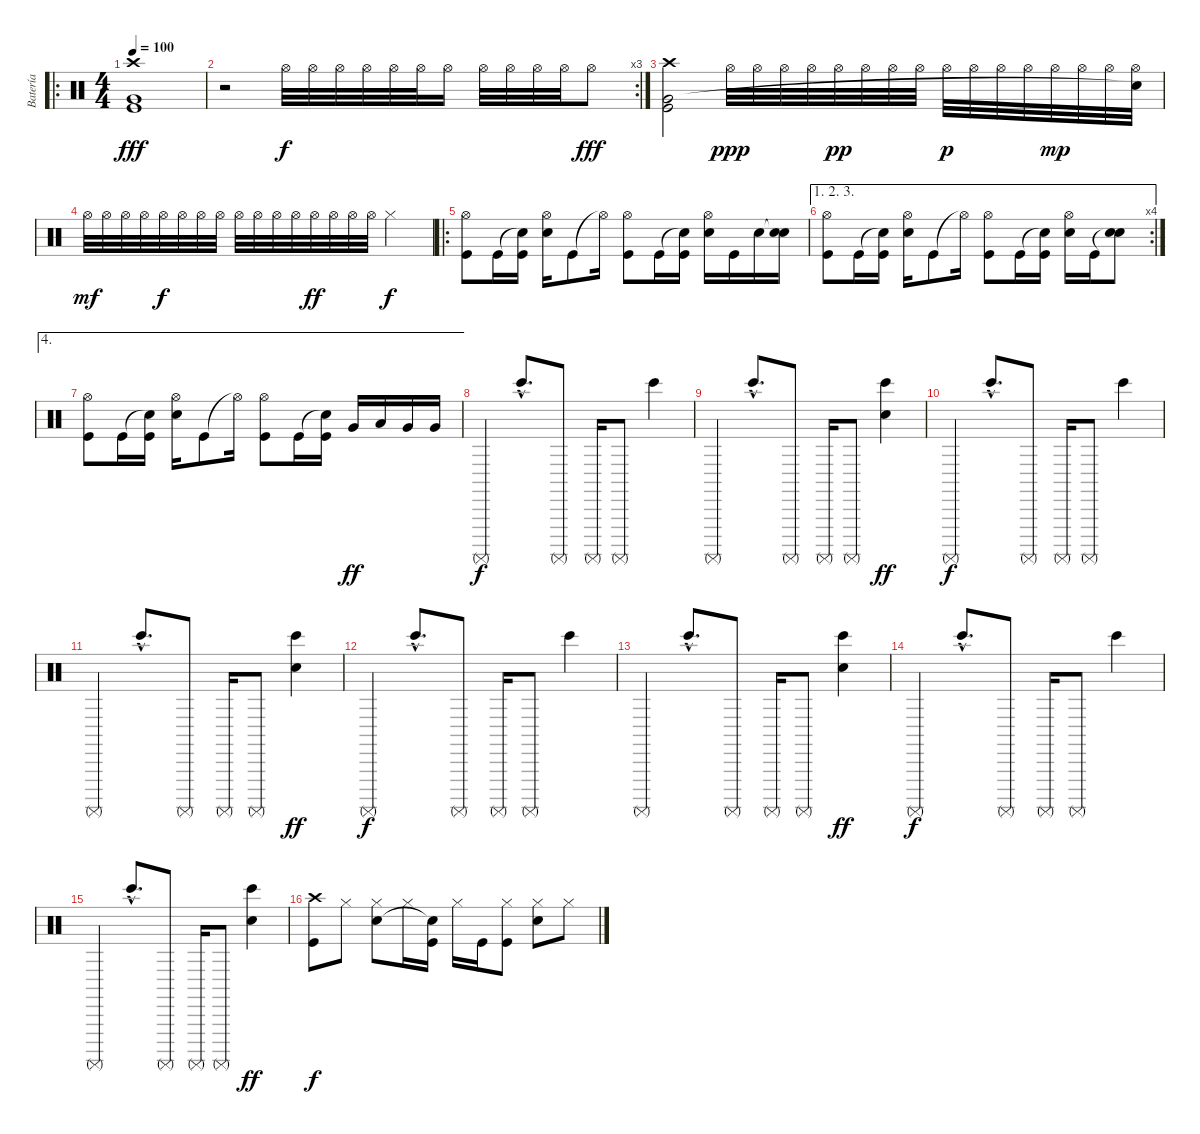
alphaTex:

\track ("Batería" "Batería") {instrument percussion}
\staff {score}
\articulation defaults
\ro
\ts (4 4)
\tempo 100
\clef neutral
\ks c
("Kick (hit)" "Very Low Tom (hit)" "Crash high (hit)").1{dy fff} |
\rc 3
r.2 "Hi-Hat (open)".32{dy f} "Hi-Hat (open)".32 "Hi-Hat (open)".32 "Hi-Hat (open)".32 "Hi-Hat (open)".32 "Hi-Hat (open)".32 "Hi-Hat (open)".16 "Hi-Hat (open)".32 "Hi-Hat (open)".32 "Hi-Hat (open)".32 "Hi-Hat (open)".32 "Hi-Hat (open)".8{dy fff} |
("Kick (hit)" "Very Low Tom (hit)" "Crash high (hit)").2 "Hi-Hat (open)".32{dy ppp} "Hi-Hat (open)".32 "Hi-Hat (open)".32 "Hi-Hat (open)".32 "Hi-Hat (open)".32{dy pp} "Hi-Hat (open)".32 "Hi-Hat (open)".32 "Hi-Hat (open)".32 "Hi-Hat (open)".32{dy p} "Hi-Hat (open)".32 "Hi-Hat (open)".32 "Hi-Hat (open)".32 "Hi-Hat (open)".32{dy mp} "Hi-Hat (open)".32 "Hi-Hat (open)".32 ("Hi-Hat (open)" "Snare (hit)"{t}).32 |
"Hi-Hat (open)".32{dy mf} "Hi-Hat (open)".32 "Hi-Hat (open)".32 "Hi-Hat (open)".32 "Hi-Hat (open)".32{dy f} "Hi-Hat (open)".32 "Hi-Hat (open)".32 "Hi-Hat (open)".32 "Hi-Hat (open)".32 "Hi-Hat (open)".32 "Hi-Hat (open)".32 "Hi-Hat (open)".32 "Hi-Hat (open)".32{dy ff} "Hi-Hat (open)".32 "Hi-Hat (open)".32 "Hi-Hat (open)".32 "Hi-Hat (closed)".2{dy f} |
\ro
("Hi-Hat (open)" "Kick (hit)").8 "Kick (hit)".16 ("Snare (hit)"{t} "Kick (hit)").16 ("Hi-Hat (open)" "Snare (hit) 2").16 "Kick (hit)".8 "Hi-Hat (open)"{t}.16 ("Hi-Hat (open)" "Kick (hit)").8 "Kick (hit)".16 ("Snare (hit)"{t} "Kick (hit)").16 ("Hi-Hat (open)" "Snare (hit) 2").16 "Kick (hit)".16 "Snare (hit) 2".16 ("Snare (hit)"{t} "Snare (hit) 2").16 |
\ae (1 2 3)
\rc 4
("Hi-Hat (open)" "Kick (hit)").8 "Kick (hit)".16 ("Snare (hit)"{t} "Kick (hit)").16 ("Hi-Hat (open)" "Snare (hit) 2").16 "Kick (hit)".8 "Hi-Hat (open)"{t}.16 ("Hi-Hat (open)" "Kick (hit)").8 "Kick (hit)".16 ("Snare (hit)"{t} "Kick (hit)").16 ("Hi-Hat (open)" "Snare (hit) 2").16 "Kick (hit)".16 ("Snare (hit)"{t} "Snare (hit) 2").8 |
\ae 4
("Hi-Hat (open)" "Kick (hit)").8 "Kick (hit)".16 ("Snare (hit)"{t} "Kick (hit)").16 ("Hi-Hat (open)" "Snare (hit) 2").16 "Kick (hit)".8 "Hi-Hat (open)"{t}.16 ("Hi-Hat (open)" "Kick (hit)").8 "Kick (hit)".16 ("Snare (hit)"{t} "Kick (hit)").16 "Very Low Tom (hit)".16{dy ff} "Low Tom (hit)".16 "Very Low Tom (hit)".16 "Very Low Tom (hit)".16 |
"Surdo (mute)".4{dy f} "Bongo High (hit)"{hac}.8{d} "Surdo (mute)".8 "Surdo (mute)".16 "Surdo (mute)".8 "Bongo High (hit)".4 |
"Surdo (mute)".4 "Bongo High (hit)"{hac}.8{d} "Surdo (mute)".8 "Surdo (mute)".16 "Surdo (mute)".8 ("Metronome (bell)" "Bongo High (hit)").4{dy ff} |
"Surdo (mute)".4{dy f} "Bongo High (hit)"{hac}.8{d} "Surdo (mute)".8 "Surdo (mute)".16 "Surdo (mute)".8 "Bongo High (hit)".4 |
"Surdo (mute)".4 "Bongo High (hit)"{hac}.8{d} "Surdo (mute)".8 "Surdo (mute)".16 "Surdo (mute)".8 ("Metronome (bell)" "Bongo High (hit)").4{dy ff} |
"Surdo (mute)".4{dy f} "Bongo High (hit)"{hac}.8{d} "Surdo (mute)".8 "Surdo (mute)".16 "Surdo (mute)".8 "Bongo High (hit)".4 |
"Surdo (mute)".4 "Bongo High (hit)"{hac}.8{d} "Surdo (mute)".8 "Surdo (mute)".16 "Surdo (mute)".8 ("Metronome (bell)" "Bongo High (hit)").4{dy ff} |
"Surdo (mute)".4{dy f} "Bongo High (hit)"{hac}.8{d} "Surdo (mute)".8 "Surdo (mute)".16 "Surdo (mute)".8 "Bongo High (hit)".4 |
"Surdo (mute)".4 "Bongo High (hit)"{hac}.8{d} "Surdo (mute)".8 "Surdo (mute)".16 "Surdo (mute)".8 ("Metronome (bell)" "Bongo High (hit)").4{dy ff} |
("Kick (hit)" "Crash high (hit)").8{dy f} "Hi-Hat (closed)".8 ("Hi-Hat (closed)" "Snare (hit) 2").8 "Hi-Hat (closed)".16 ("Kick (hit)" "Snare (hit)"{t}).16 "Hi-Hat (closed)".16 "Kick (hit)".16 ("Hi-Hat (closed)" "Kick (hit)").8 ("Hi-Hat (closed)" "Snare (hit) 2").8 "Hi-Hat (closed)".8
